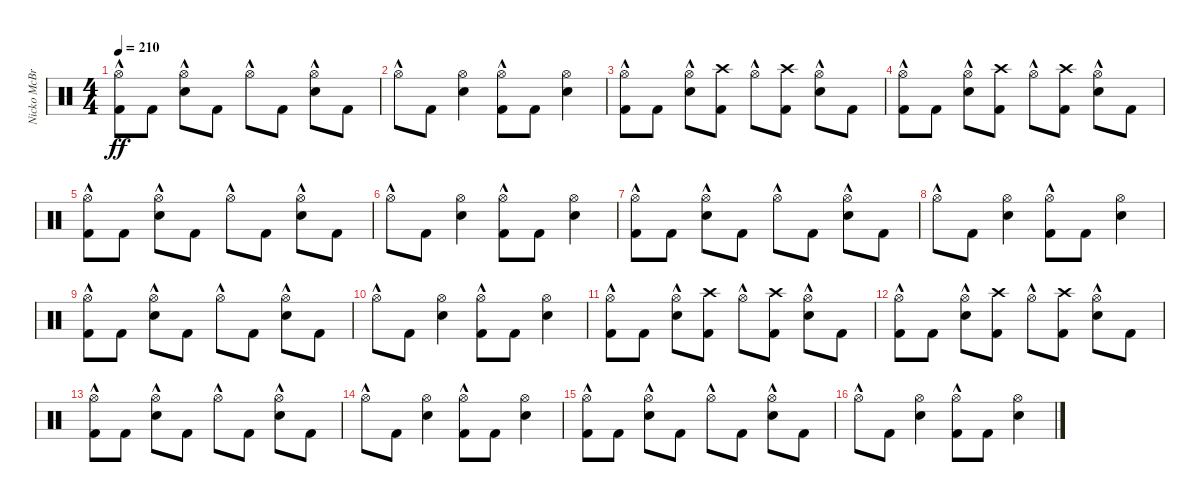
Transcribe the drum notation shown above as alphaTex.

\track ("Nicko McBrain" "Nicko McBr") {instrument percussion}
\staff {score}
\articulation defaults
\ts (4 4)
\tempo 210
\clef neutral
\ks c
("Kick (hit) 2" "Hi-Hat (open)"{hac}).8{dy ff} "Kick (hit) 2".8 ("Snare (hit) 2" "Hi-Hat (open)"{hac}).8 "Kick (hit) 2".8 "Hi-Hat (open)"{hac}.8 "Kick (hit) 2".8 ("Snare (hit) 2" "Hi-Hat (open)"{hac}).8 "Kick (hit) 2".8 |
"Hi-Hat (open)"{hac}.8 "Kick (hit) 2".8 ("Snare (hit) 2" "Hi-Hat (open)").4 ("Kick (hit) 2" "Hi-Hat (open)"{hac}).8 "Kick (hit) 2".8 ("Snare (hit) 2" "Hi-Hat (open)").4 |
("Kick (hit) 2" "Hi-Hat (open)"{hac}).8 "Kick (hit) 2".8 ("Snare (hit) 2" "Hi-Hat (open)"{hac}).8 ("Kick (hit) 2" "Crash high (hit)").8 "Hi-Hat (open)"{hac}.8 ("Kick (hit) 2" "Crash high (hit)").8 ("Snare (hit) 2" "Hi-Hat (open)"{hac}).8 "Kick (hit) 2".8 |
("Kick (hit) 2" "Hi-Hat (open)"{hac}).8 "Kick (hit) 2".8 ("Snare (hit) 2" "Hi-Hat (open)"{hac}).8 ("Kick (hit) 2" "Crash high (hit)").8 "Hi-Hat (open)"{hac}.8 ("Kick (hit) 2" "Crash high (hit)").8 ("Snare (hit) 2" "Hi-Hat (open)"{hac}).8 "Kick (hit) 2".8 |
("Kick (hit) 2" "Hi-Hat (open)"{hac}).8 "Kick (hit) 2".8 ("Snare (hit) 2" "Hi-Hat (open)"{hac}).8 "Kick (hit) 2".8 "Hi-Hat (open)"{hac}.8 "Kick (hit) 2".8 ("Snare (hit) 2" "Hi-Hat (open)"{hac}).8 "Kick (hit) 2".8 |
"Hi-Hat (open)"{hac}.8 "Kick (hit) 2".8 ("Snare (hit) 2" "Hi-Hat (open)").4 ("Kick (hit) 2" "Hi-Hat (open)"{hac}).8 "Kick (hit) 2".8 ("Snare (hit) 2" "Hi-Hat (open)").4 |
("Kick (hit) 2" "Hi-Hat (open)"{hac}).8 "Kick (hit) 2".8 ("Snare (hit) 2" "Hi-Hat (open)"{hac}).8 "Kick (hit) 2".8 "Hi-Hat (open)"{hac}.8 "Kick (hit) 2".8 ("Snare (hit) 2" "Hi-Hat (open)"{hac}).8 "Kick (hit) 2".8 |
"Hi-Hat (open)"{hac}.8 "Kick (hit) 2".8 ("Snare (hit) 2" "Hi-Hat (open)").4 ("Kick (hit) 2" "Hi-Hat (open)"{hac}).8 "Kick (hit) 2".8 ("Snare (hit) 2" "Hi-Hat (open)").4 |
("Kick (hit) 2" "Hi-Hat (open)"{hac}).8 "Kick (hit) 2".8 ("Snare (hit) 2" "Hi-Hat (open)"{hac}).8 "Kick (hit) 2".8 "Hi-Hat (open)"{hac}.8 "Kick (hit) 2".8 ("Snare (hit) 2" "Hi-Hat (open)"{hac}).8 "Kick (hit) 2".8 |
"Hi-Hat (open)"{hac}.8 "Kick (hit) 2".8 ("Snare (hit) 2" "Hi-Hat (open)").4 ("Kick (hit) 2" "Hi-Hat (open)"{hac}).8 "Kick (hit) 2".8 ("Snare (hit) 2" "Hi-Hat (open)").4 |
("Kick (hit) 2" "Hi-Hat (open)"{hac}).8 "Kick (hit) 2".8 ("Snare (hit) 2" "Hi-Hat (open)"{hac}).8 ("Kick (hit) 2" "Crash high (hit)").8 "Hi-Hat (open)"{hac}.8 ("Kick (hit) 2" "Crash high (hit)").8 ("Snare (hit) 2" "Hi-Hat (open)"{hac}).8 "Kick (hit) 2".8 |
("Kick (hit) 2" "Hi-Hat (open)"{hac}).8 "Kick (hit) 2".8 ("Snare (hit) 2" "Hi-Hat (open)"{hac}).8 ("Kick (hit) 2" "Crash high (hit)").8 "Hi-Hat (open)"{hac}.8 ("Kick (hit) 2" "Crash high (hit)").8 ("Snare (hit) 2" "Hi-Hat (open)"{hac}).8 "Kick (hit) 2".8 |
("Kick (hit) 2" "Hi-Hat (open)"{hac}).8 "Kick (hit) 2".8 ("Snare (hit) 2" "Hi-Hat (open)"{hac}).8 "Kick (hit) 2".8 "Hi-Hat (open)"{hac}.8 "Kick (hit) 2".8 ("Snare (hit) 2" "Hi-Hat (open)"{hac}).8 "Kick (hit) 2".8 |
"Hi-Hat (open)"{hac}.8 "Kick (hit) 2".8 ("Snare (hit) 2" "Hi-Hat (open)").4 ("Kick (hit) 2" "Hi-Hat (open)"{hac}).8 "Kick (hit) 2".8 ("Snare (hit) 2" "Hi-Hat (open)").4 |
("Kick (hit) 2" "Hi-Hat (open)"{hac}).8 "Kick (hit) 2".8 ("Snare (hit) 2" "Hi-Hat (open)"{hac}).8 "Kick (hit) 2".8 "Hi-Hat (open)"{hac}.8 "Kick (hit) 2".8 ("Snare (hit) 2" "Hi-Hat (open)"{hac}).8 "Kick (hit) 2".8 |
"Hi-Hat (open)"{hac}.8 "Kick (hit) 2".8 ("Snare (hit) 2" "Hi-Hat (open)").4 ("Kick (hit) 2" "Hi-Hat (open)"{hac}).8 "Kick (hit) 2".8 ("Snare (hit) 2" "Hi-Hat (open)").4
